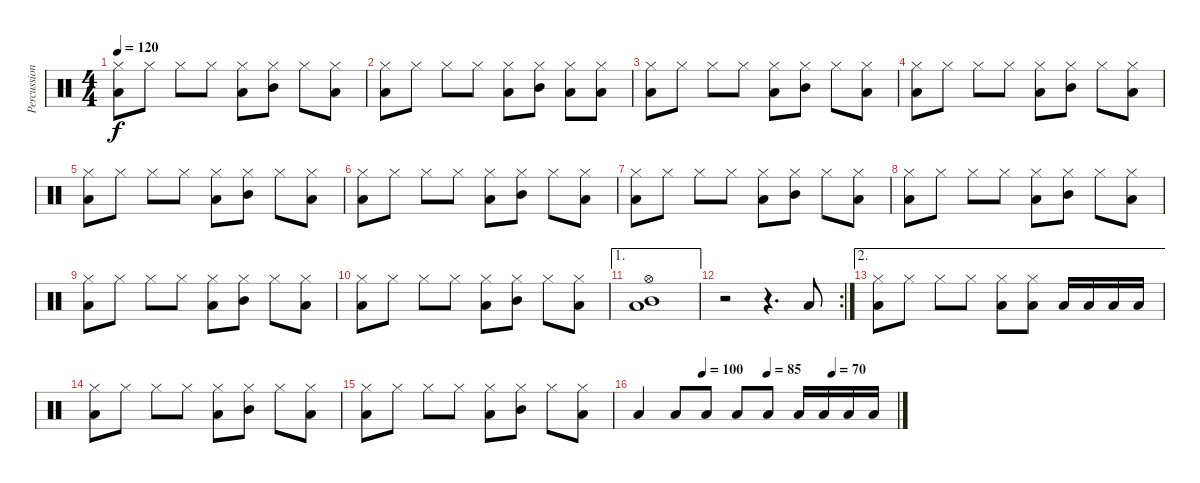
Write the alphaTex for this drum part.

\track ("Percussions" "Percussion") {instrument percussion}
\staff {score}
\articulation defaults
\ts (4 4)
\tempo 120
\clef neutral
\ks c
("Hi-Hat (closed)" "Low Tom (hit)").8{dy f} "Hi-Hat (closed)".8 "Hi-Hat (closed)".8 "Hi-Hat (closed)".8 ("Hi-Hat (closed)" "Low Tom (hit)").8 ("Hi-Hat (closed)" "Mid Tom (hit)").8 "Hi-Hat (closed)".8 ("Hi-Hat (closed)" "Low Tom (hit)").8 |
("Hi-Hat (closed)" "Low Tom (hit)").8 "Hi-Hat (closed)".8 "Hi-Hat (closed)".8 "Hi-Hat (closed)".8 ("Hi-Hat (closed)" "Low Tom (hit)").8 ("Hi-Hat (closed)" "Mid Tom (hit)").8 ("Hi-Hat (closed)" "Low Tom (hit)").8 ("Hi-Hat (closed)" "Low Tom (hit)").8 |
("Hi-Hat (closed)" "Low Tom (hit)").8 "Hi-Hat (closed)".8 "Hi-Hat (closed)".8 "Hi-Hat (closed)".8 ("Hi-Hat (closed)" "Low Tom (hit)").8 ("Hi-Hat (closed)" "Mid Tom (hit)").8 "Hi-Hat (closed)".8 ("Hi-Hat (closed)" "Low Tom (hit)").8 |
("Hi-Hat (closed)" "Low Tom (hit)").8 "Hi-Hat (closed)".8 "Hi-Hat (closed)".8 "Hi-Hat (closed)".8 ("Hi-Hat (closed)" "Low Tom (hit)").8 ("Hi-Hat (closed)" "Mid Tom (hit)").8 "Hi-Hat (closed)".8 ("Hi-Hat (closed)" "Low Tom (hit)").8 |
("Hi-Hat (closed)" "Low Tom (hit)").8 "Hi-Hat (closed)".8 "Hi-Hat (closed)".8 "Hi-Hat (closed)".8 ("Hi-Hat (closed)" "Low Tom (hit)").8 ("Hi-Hat (closed)" "Mid Tom (hit)").8 "Hi-Hat (closed)".8 ("Hi-Hat (closed)" "Low Tom (hit)").8 |
("Hi-Hat (closed)" "Low Tom (hit)").8 "Hi-Hat (closed)".8 "Hi-Hat (closed)".8 "Hi-Hat (closed)".8 ("Hi-Hat (closed)" "Low Tom (hit)").8 ("Hi-Hat (closed)" "Mid Tom (hit)").8 "Hi-Hat (closed)".8 ("Hi-Hat (closed)" "Low Tom (hit)").8 |
("Hi-Hat (closed)" "Low Tom (hit)").8 "Hi-Hat (closed)".8 "Hi-Hat (closed)".8 "Hi-Hat (closed)".8 ("Hi-Hat (closed)" "Low Tom (hit)").8 ("Hi-Hat (closed)" "Mid Tom (hit)").8 "Hi-Hat (closed)".8 ("Hi-Hat (closed)" "Low Tom (hit)").8 |
("Hi-Hat (closed)" "Low Tom (hit)").8 "Hi-Hat (closed)".8 "Hi-Hat (closed)".8 "Hi-Hat (closed)".8 ("Hi-Hat (closed)" "Low Tom (hit)").8 ("Hi-Hat (closed)" "Mid Tom (hit)").8 "Hi-Hat (closed)".8 ("Hi-Hat (closed)" "Low Tom (hit)").8 |
("Hi-Hat (closed)" "Low Tom (hit)").8 "Hi-Hat (closed)".8 "Hi-Hat (closed)".8 "Hi-Hat (closed)".8 ("Hi-Hat (closed)" "Low Tom (hit)").8 ("Hi-Hat (closed)" "Mid Tom (hit)").8 "Hi-Hat (closed)".8 ("Hi-Hat (closed)" "Low Tom (hit)").8 |
("Hi-Hat (closed)" "Low Tom (hit)").8 "Hi-Hat (closed)".8 "Hi-Hat (closed)".8 "Hi-Hat (closed)".8 ("Hi-Hat (closed)" "Low Tom (hit)").8 ("Hi-Hat (closed)" "Mid Tom (hit)").8 "Hi-Hat (closed)".8 ("Hi-Hat (closed)" "Low Tom (hit)").8 |
\ae 1
("Low Tom (hit)" "Hi-Hat (open)" "Mid Tom (hit)").1 |
\rc 2
r.2 r.4{d} "Low Tom (hit)".8 |
\ae 2
("Hi-Hat (closed)" "Low Tom (hit)").8 "Hi-Hat (closed)".8 "Hi-Hat (closed)".8 "Hi-Hat (closed)".8 ("Hi-Hat (closed)" "Low Tom (hit)").8 ("Hi-Hat (closed)" "Low Tom (hit)").8 "Low Tom (hit)".16 "Low Tom (hit)".16 "Low Tom (hit)".16 "Low Tom (hit)".16 |
("Hi-Hat (closed)" "Low Tom (hit)").8 "Hi-Hat (closed)".8 "Hi-Hat (closed)".8 "Hi-Hat (closed)".8 ("Hi-Hat (closed)" "Low Tom (hit)").8 ("Hi-Hat (closed)" "Mid Tom (hit)").8 "Hi-Hat (closed)".8 ("Hi-Hat (closed)" "Low Tom (hit)").8 |
("Hi-Hat (closed)" "Low Tom (hit)").8 "Hi-Hat (closed)".8 "Hi-Hat (closed)".8 "Hi-Hat (closed)".8 ("Hi-Hat (closed)" "Low Tom (hit)").8 ("Hi-Hat (closed)" "Mid Tom (hit)").8 "Hi-Hat (closed)".8 ("Hi-Hat (closed)" "Low Tom (hit)").8 |
\tempo (100 0.25)
\tempo (85 0.5)
\tempo (70 0.75)
"Low Tom (hit)".4 "Low Tom (hit)".8 "Low Tom (hit)".8 "Low Tom (hit)".8 "Low Tom (hit)".8 "Low Tom (hit)".16 "Low Tom (hit)".16 "Low Tom (hit)".16 "Low Tom (hit)".16
